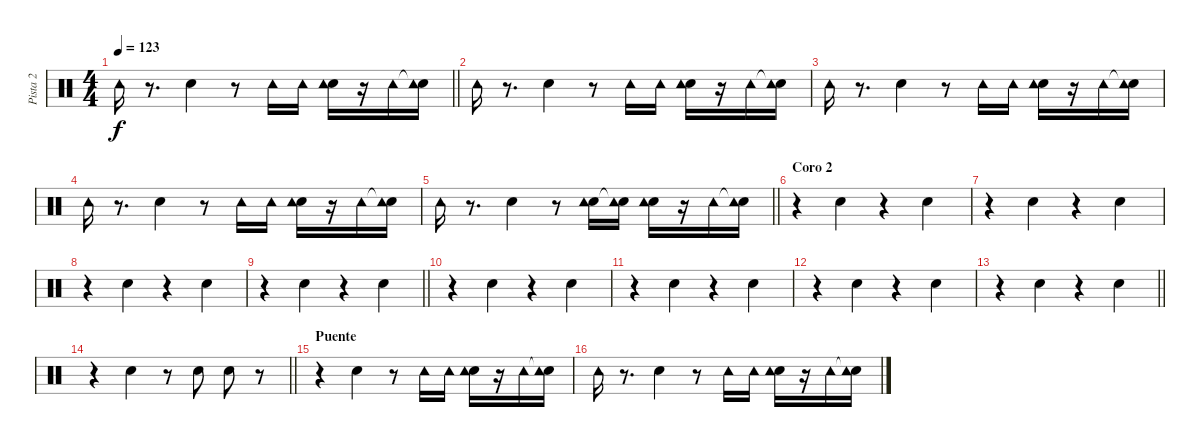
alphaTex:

\track ("Pista 2" "Pista 2") {instrument percussion}
\staff {score}
\articulation defaults
\ts (4 4)
\tempo 123
\clef neutral
\barLineRight lightlight
\ks c "Tambourine (hit)".16{dy f}
r.8{d} "Hand Clap (hit)".4 r.8 "Tambourine (hit)".16 "Tambourine (hit)".16 ("Hand Clap (hit)" "Tambourine (hit)").16 r.16 "Tambourine (hit)".16 ("Snare (hit)"{t} "Tambourine (hit)").16 |
"Tambourine (hit)".16 r.8{d} "Hand Clap (hit)".4 r.8 "Tambourine (hit)".16 "Tambourine (hit)".16 ("Hand Clap (hit)" "Tambourine (hit)").16 r.16 "Tambourine (hit)".16 ("Snare (hit)"{t} "Tambourine (hit)").16 |
"Tambourine (hit)".16 r.8{d} "Hand Clap (hit)".4 r.8 "Tambourine (hit)".16 "Tambourine (hit)".16 ("Hand Clap (hit)" "Tambourine (hit)").16 r.16 "Tambourine (hit)".16 ("Snare (hit)"{t} "Tambourine (hit)").16 |
"Tambourine (hit)".16 r.8{d} "Hand Clap (hit)".4 r.8 "Tambourine (hit)".16 "Tambourine (hit)".16 ("Hand Clap (hit)" "Tambourine (hit)").16 r.16 "Tambourine (hit)".16 ("Snare (hit)"{t} "Tambourine (hit)").16 |
\barLineRight lightlight "Tambourine (hit)".16
r.8{d} "Hand Clap (hit)".4 r.8 ("Hand Clap (hit)" "Tambourine (hit)").16 ("Snare (hit)"{t} "Tambourine (hit)").16 ("Hand Clap (hit)" "Tambourine (hit)").16 r.16 "Tambourine (hit)".16 ("Snare (hit)"{t} "Tambourine (hit)").16 |
\section ("" "Coro 2")
r.4 "Hand Clap (hit)".4 r.4 "Hand Clap (hit)".4 |
r.4 "Hand Clap (hit)".4 r.4 "Hand Clap (hit)".4 |
r.4 "Hand Clap (hit)".4 r.4 "Hand Clap (hit)".4 |
\barLineRight lightlight
r.4 "Hand Clap (hit)".4 r.4 "Hand Clap (hit)".4 |
r.4 "Hand Clap (hit)".4 r.4 "Hand Clap (hit)".4 |
r.4 "Hand Clap (hit)".4 r.4 "Hand Clap (hit)".4 |
r.4 "Hand Clap (hit)".4 r.4 "Hand Clap (hit)".4 |
\barLineRight lightlight
r.4 "Hand Clap (hit)".4 r.4 "Hand Clap (hit)".4 |
\barLineRight lightlight
r.4 "Hand Clap (hit)".4 r.8 "Hand Clap (hit)".8 "Hand Clap (hit)".8 r.8 |
\section ("" "Puente")
r.4 "Hand Clap (hit)".4 r.8 "Tambourine (hit)".16 "Tambourine (hit)".16 ("Hand Clap (hit)" "Tambourine (hit)").16 r.16 "Tambourine (hit)".16 ("Snare (hit)"{t} "Tambourine (hit)").16 |
"Tambourine (hit)".16 r.8{d} "Hand Clap (hit)".4 r.8 "Tambourine (hit)".16 "Tambourine (hit)".16 ("Hand Clap (hit)" "Tambourine (hit)").16 r.16 "Tambourine (hit)".16 ("Snare (hit)"{t} "Tambourine (hit)").16
